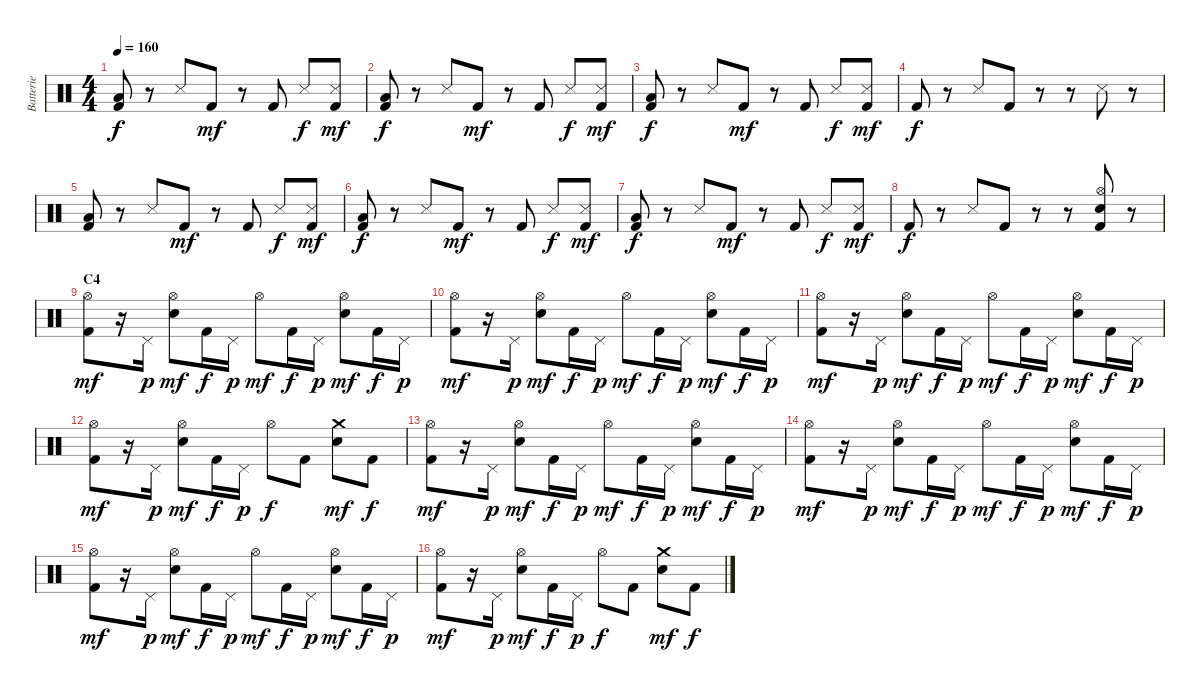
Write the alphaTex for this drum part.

\track ("Batterie" "Batterie") {instrument percussion}
\staff {score}
\articulation defaults
\ts (4 4)
\tempo 160
\clef neutral
\ks c
("Low Floor Tom (hit)" "Kick (hit) 2").8{dy f} r.8 "Snare (side stick) 3".8 "Kick (hit) 2".8{dy mf} r.8 "Kick (hit) 2".8 "Snare (side stick) 3".8{dy f} ("Metronome (hit)" "Kick (hit) 2").8{dy mf} |
("Low Floor Tom (hit)" "Kick (hit) 2").8{dy f} r.8 "Snare (side stick) 3".8 "Kick (hit) 2".8{dy mf} r.8 "Kick (hit) 2".8 "Snare (side stick) 3".8{dy f} ("Metronome (hit)" "Kick (hit) 2").8{dy mf} |
("Low Floor Tom (hit)" "Kick (hit) 2").8{dy f} r.8 "Snare (side stick) 3".8 "Kick (hit) 2".8{dy mf} r.8 "Kick (hit) 2".8 "Snare (side stick) 3".8{dy f} ("Metronome (hit)" "Kick (hit) 2").8{dy mf} |
"Kick (hit) 2".8{dy f} r.8 "Snare (side stick) 3".8 "Kick (hit) 2".8 r.8 r.8 "Snare (side stick) 3".8 r.8 |
("Low Floor Tom (hit)" "Kick (hit) 2").8 r.8 "Snare (side stick) 3".8 "Kick (hit) 2".8{dy mf} r.8 "Kick (hit) 2".8 "Snare (side stick) 3".8{dy f} ("Metronome (hit)" "Kick (hit) 2").8{dy mf} |
("Low Floor Tom (hit)" "Kick (hit) 2").8{dy f} r.8 "Snare (side stick) 3".8 "Kick (hit) 2".8{dy mf} r.8 "Kick (hit) 2".8 "Snare (side stick) 3".8{dy f} ("Metronome (hit)" "Kick (hit) 2").8{dy mf} |
("Low Floor Tom (hit)" "Kick (hit) 2").8{dy f} r.8 "Snare (side stick) 3".8 "Kick (hit) 2".8{dy mf} r.8 "Kick (hit) 2".8 "Snare (side stick) 3".8{dy f} ("Metronome (hit)" "Kick (hit) 2").8{dy mf} |
"Kick (hit) 2".8{dy f} r.8 "Snare (side stick) 3".8 "Kick (hit) 2".8 r.8 r.8 ("Hi-Hat (open)" "Snare (hit) 2" "Kick (hit) 2").8 r.8 |
\section ("" "C4")
("Hi-Hat (open)" "Kick (hit) 2").8{dy mf} r.16 "Pedal Hi-Hat (hit)".16{dy p} ("Hi-Hat (open)" "Snare (hit) 2").8{dy mf} "Kick (hit) 2".16{dy f} "Pedal Hi-Hat (hit)".16{dy p} "Hi-Hat (open)".8{dy mf} "Kick (hit) 2".16{dy f} "Pedal Hi-Hat (hit)".16{dy p} ("Hi-Hat (open)" "Snare (hit) 2").8{dy mf} "Kick (hit) 2".16{dy f} "Pedal Hi-Hat (hit)".16{dy p} |
("Hi-Hat (open)" "Kick (hit) 2").8{dy mf} r.16 "Pedal Hi-Hat (hit)".16{dy p} ("Hi-Hat (open)" "Snare (hit) 2").8{dy mf} "Kick (hit) 2".16{dy f} "Pedal Hi-Hat (hit)".16{dy p} "Hi-Hat (open)".8{dy mf} "Kick (hit) 2".16{dy f} "Pedal Hi-Hat (hit)".16{dy p} ("Hi-Hat (open)" "Snare (hit) 2").8{dy mf} "Kick (hit) 2".16{dy f} "Pedal Hi-Hat (hit)".16{dy p} |
("Hi-Hat (open)" "Kick (hit) 2").8{dy mf} r.16 "Pedal Hi-Hat (hit)".16{dy p} ("Hi-Hat (open)" "Snare (hit) 2").8{dy mf} "Kick (hit) 2".16{dy f} "Pedal Hi-Hat (hit)".16{dy p} "Hi-Hat (open)".8{dy mf} "Kick (hit) 2".16{dy f} "Pedal Hi-Hat (hit)".16{dy p} ("Hi-Hat (open)" "Snare (hit) 2").8{dy mf} "Kick (hit) 2".16{dy f} "Pedal Hi-Hat (hit)".16{dy p} |
("Hi-Hat (open)" "Kick (hit) 2").8{dy mf} r.16 "Pedal Hi-Hat (hit)".16{dy p} ("Hi-Hat (open)" "Snare (hit) 2").8{dy mf} "Kick (hit) 2".16{dy f} "Pedal Hi-Hat (hit)".16{dy p} "Hi-Hat (open)".8{dy f} "Kick (hit) 2".8 ("Crash medium (hit)" "Snare (hit) 2").8{dy mf} "Kick (hit) 2".8{dy f} |
("Hi-Hat (open)" "Kick (hit) 2").8{dy mf} r.16 "Pedal Hi-Hat (hit)".16{dy p} ("Hi-Hat (open)" "Snare (hit) 2").8{dy mf} "Kick (hit) 2".16{dy f} "Pedal Hi-Hat (hit)".16{dy p} "Hi-Hat (open)".8{dy mf} "Kick (hit) 2".16{dy f} "Pedal Hi-Hat (hit)".16{dy p} ("Hi-Hat (open)" "Snare (hit) 2").8{dy mf} "Kick (hit) 2".16{dy f} "Pedal Hi-Hat (hit)".16{dy p} |
("Hi-Hat (open)" "Kick (hit) 2").8{dy mf} r.16 "Pedal Hi-Hat (hit)".16{dy p} ("Hi-Hat (open)" "Snare (hit) 2").8{dy mf} "Kick (hit) 2".16{dy f} "Pedal Hi-Hat (hit)".16{dy p} "Hi-Hat (open)".8{dy mf} "Kick (hit) 2".16{dy f} "Pedal Hi-Hat (hit)".16{dy p} ("Hi-Hat (open)" "Snare (hit) 2").8{dy mf} "Kick (hit) 2".16{dy f} "Pedal Hi-Hat (hit)".16{dy p} |
("Hi-Hat (open)" "Kick (hit) 2").8{dy mf} r.16 "Pedal Hi-Hat (hit)".16{dy p} ("Hi-Hat (open)" "Snare (hit) 2").8{dy mf} "Kick (hit) 2".16{dy f} "Pedal Hi-Hat (hit)".16{dy p} "Hi-Hat (open)".8{dy mf} "Kick (hit) 2".16{dy f} "Pedal Hi-Hat (hit)".16{dy p} ("Hi-Hat (open)" "Snare (hit) 2").8{dy mf} "Kick (hit) 2".16{dy f} "Pedal Hi-Hat (hit)".16{dy p} |
("Hi-Hat (open)" "Kick (hit) 2").8{dy mf} r.16 "Pedal Hi-Hat (hit)".16{dy p} ("Hi-Hat (open)" "Snare (hit) 2").8{dy mf} "Kick (hit) 2".16{dy f} "Pedal Hi-Hat (hit)".16{dy p} "Hi-Hat (open)".8{dy f} "Kick (hit) 2".8 ("Crash medium (hit)" "Snare (hit) 2").8{dy mf} "Kick (hit) 2".8{dy f}
